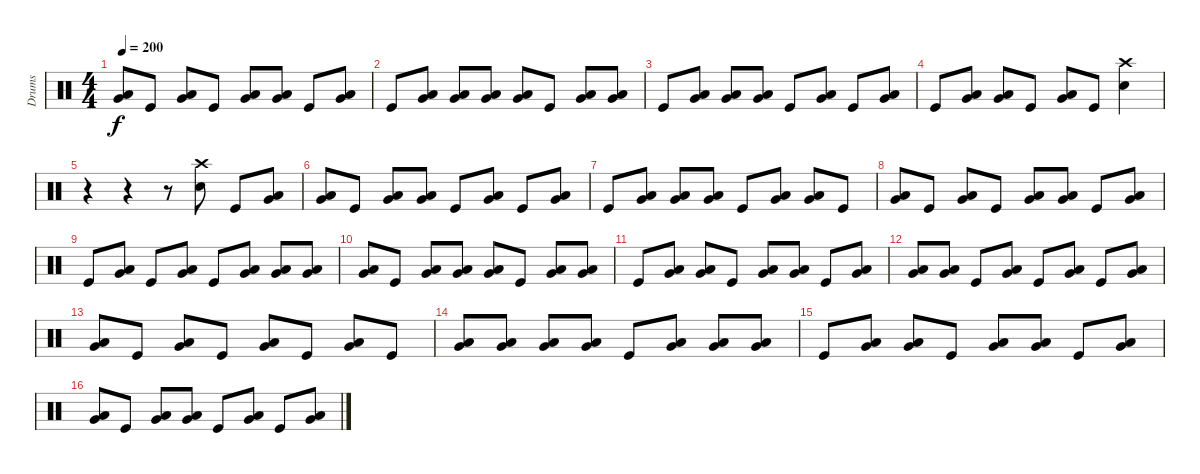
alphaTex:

\track ("Drums" "Drums") {instrument percussion}
\staff {score}
\articulation defaults
\ts (4 4)
\tempo 200
\clef neutral
\ks c
("Low Tom (hit)" "Very Low Tom (hit)").8{dy f} "Kick (hit)".8 ("Low Tom (hit)" "Very Low Tom (hit)").8 "Kick (hit)".8 ("Low Tom (hit)" "Very Low Tom (hit)").8 ("Low Tom (hit)" "Very Low Tom (hit)").8 "Kick (hit)".8 ("Low Tom (hit)" "Very Low Tom (hit)").8 |
"Kick (hit)".8 ("Low Tom (hit)" "Very Low Tom (hit)").8 ("Low Tom (hit)" "Very Low Tom (hit)").8 ("Low Tom (hit)" "Very Low Tom (hit)").8 ("Low Tom (hit)" "Very Low Tom (hit)").8 "Kick (hit)".8 ("Low Tom (hit)" "Very Low Tom (hit)").8 ("Low Tom (hit)" "Very Low Tom (hit)").8 |
"Kick (hit)".8 ("Low Tom (hit)" "Very Low Tom (hit)").8 ("Low Tom (hit)" "Very Low Tom (hit)").8 ("Low Tom (hit)" "Very Low Tom (hit)").8 "Kick (hit)".8 ("Low Tom (hit)" "Very Low Tom (hit)").8 "Kick (hit)".8 ("Low Tom (hit)" "Very Low Tom (hit)").8 |
"Kick (hit)".8 ("Low Tom (hit)" "Very Low Tom (hit)").8 ("Low Tom (hit)" "Very Low Tom (hit)").8 "Kick (hit)".8 ("Low Tom (hit)" "Very Low Tom (hit)").8 "Kick (hit)".8 ("Crash high (hit)" "Snare (hit) 2").4 |
r.4 r.4 r.8 ("Crash high (hit)" "Snare (hit) 2").8 "Kick (hit)".8 ("Low Tom (hit)" "Very Low Tom (hit)").8 |
("Low Tom (hit)" "Very Low Tom (hit)").8 "Kick (hit)".8 ("Low Tom (hit)" "Very Low Tom (hit)").8 ("Low Tom (hit)" "Very Low Tom (hit)").8 "Kick (hit)".8 ("Low Tom (hit)" "Very Low Tom (hit)").8 "Kick (hit)".8 ("Low Tom (hit)" "Very Low Tom (hit)").8 |
"Kick (hit)".8 ("Low Tom (hit)" "Very Low Tom (hit)").8 ("Low Tom (hit)" "Very Low Tom (hit)").8 ("Low Tom (hit)" "Very Low Tom (hit)").8 "Kick (hit)".8 ("Low Tom (hit)" "Very Low Tom (hit)").8 ("Low Tom (hit)" "Very Low Tom (hit)").8 "Kick (hit)".8 |
("Low Tom (hit)" "Very Low Tom (hit)").8 "Kick (hit)".8 ("Low Tom (hit)" "Very Low Tom (hit)").8 "Kick (hit)".8 ("Low Tom (hit)" "Very Low Tom (hit)").8 ("Low Tom (hit)" "Very Low Tom (hit)").8 "Kick (hit)".8 ("Low Tom (hit)" "Very Low Tom (hit)").8 |
"Kick (hit)".8 ("Low Tom (hit)" "Very Low Tom (hit)").8 "Kick (hit)".8 ("Low Tom (hit)" "Very Low Tom (hit)").8 "Kick (hit)".8 ("Low Tom (hit)" "Very Low Tom (hit)").8 ("Low Tom (hit)" "Very Low Tom (hit)").8 ("Low Tom (hit)" "Very Low Tom (hit)").8 |
("Low Tom (hit)" "Very Low Tom (hit)").8 "Kick (hit)".8 ("Low Tom (hit)" "Very Low Tom (hit)").8 ("Low Tom (hit)" "Very Low Tom (hit)").8 ("Low Tom (hit)" "Very Low Tom (hit)").8 "Kick (hit)".8 ("Low Tom (hit)" "Very Low Tom (hit)").8 ("Low Tom (hit)" "Very Low Tom (hit)").8 |
"Kick (hit)".8 ("Low Tom (hit)" "Very Low Tom (hit)").8 ("Low Tom (hit)" "Very Low Tom (hit)").8 "Kick (hit)".8 ("Low Tom (hit)" "Very Low Tom (hit)").8 ("Low Tom (hit)" "Very Low Tom (hit)").8 "Kick (hit)".8 ("Low Tom (hit)" "Very Low Tom (hit)").8 |
("Low Tom (hit)" "Very Low Tom (hit)").8 ("Low Tom (hit)" "Very Low Tom (hit)").8 "Kick (hit)".8 ("Low Tom (hit)" "Very Low Tom (hit)").8 "Kick (hit)".8 ("Low Tom (hit)" "Very Low Tom (hit)").8 "Kick (hit)".8 ("Low Tom (hit)" "Very Low Tom (hit)").8 |
("Low Tom (hit)" "Very Low Tom (hit)").8 "Kick (hit)".8 ("Low Tom (hit)" "Very Low Tom (hit)").8 "Kick (hit)".8 ("Low Tom (hit)" "Very Low Tom (hit)").8 "Kick (hit)".8 ("Low Tom (hit)" "Very Low Tom (hit)").8 "Kick (hit)".8 |
("Low Tom (hit)" "Very Low Tom (hit)").8 ("Low Tom (hit)" "Very Low Tom (hit)").8 ("Low Tom (hit)" "Very Low Tom (hit)").8 ("Low Tom (hit)" "Very Low Tom (hit)").8 "Kick (hit)".8 ("Low Tom (hit)" "Very Low Tom (hit)").8 ("Low Tom (hit)" "Very Low Tom (hit)").8 ("Low Tom (hit)" "Very Low Tom (hit)").8 |
"Kick (hit)".8 ("Low Tom (hit)" "Very Low Tom (hit)").8 ("Low Tom (hit)" "Very Low Tom (hit)").8 "Kick (hit)".8 ("Low Tom (hit)" "Very Low Tom (hit)").8 ("Low Tom (hit)" "Very Low Tom (hit)").8 "Kick (hit)".8 ("Low Tom (hit)" "Very Low Tom (hit)").8 |
("Low Tom (hit)" "Very Low Tom (hit)").8 "Kick (hit)".8 ("Low Tom (hit)" "Very Low Tom (hit)").8 ("Low Tom (hit)" "Very Low Tom (hit)").8 "Kick (hit)".8 ("Low Tom (hit)" "Very Low Tom (hit)").8 "Kick (hit)".8 ("Low Tom (hit)" "Very Low Tom (hit)").8
